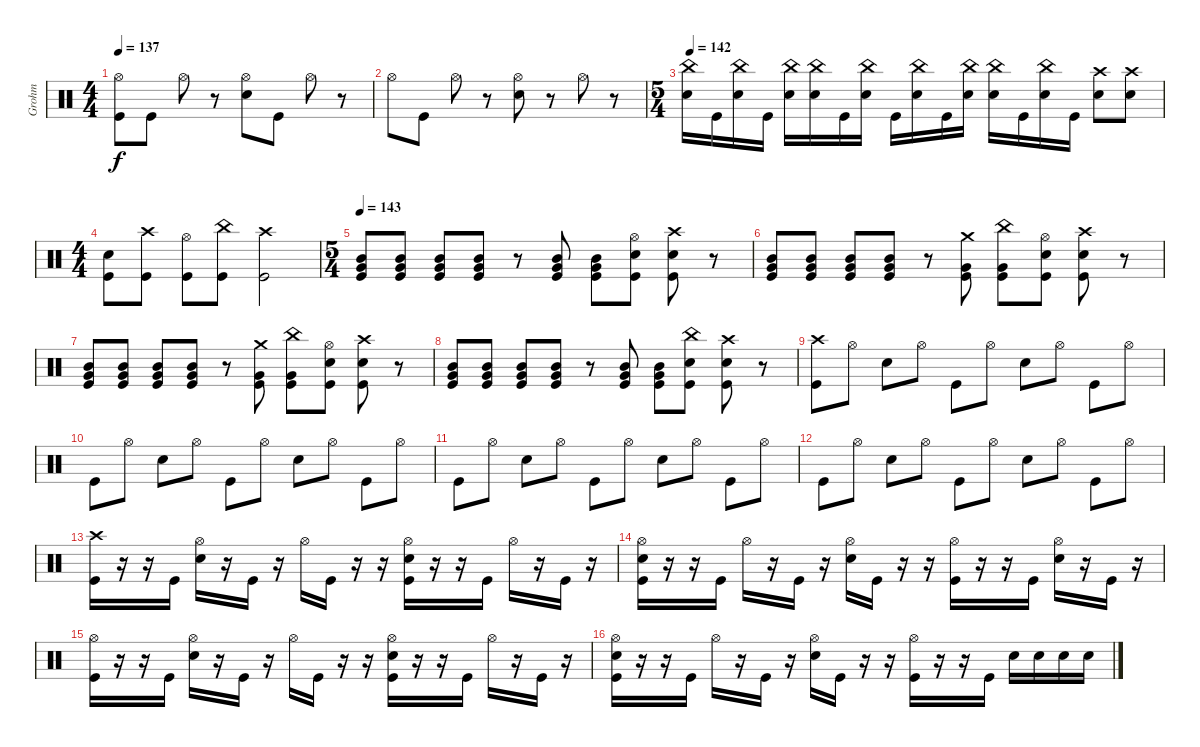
\track ("Grohm" "Grohm") {instrument percussion}
\staff {score}
\articulation defaults
\ts (4 4)
\tempo 137
\clef neutral
\ks c
("Hi-Hat (open)" "Kick (hit)").8{dy f} "Kick (hit)".8 "Hi-Hat (open)".8 r.8 ("Hi-Hat (open)" "Snare (hit) 2").8 "Kick (hit)".8 "Hi-Hat (open)".8 r.8 |
"Hi-Hat (open)".8 "Kick (hit)".8 "Hi-Hat (open)".8 r.8 ("Hi-Hat (open)" "Snare (hit) 2").8 r.8 "Hi-Hat (open)".8 r.8 |
\ts (5 4)
\tempo 142
("China (hit)" "Snare (hit) 2").16 "Kick (hit)".16 ("China (hit)" "Snare (hit) 2").16 "Kick (hit)".16 ("China (hit)" "Snare (hit) 2").16 ("China (hit)" "Snare (hit) 2").16 "Kick (hit)".16 ("China (hit)" "Snare (hit) 2").16 "Kick (hit)".16 ("China (hit)" "Snare (hit) 2").16 "Kick (hit)".16 ("China (hit)" "Snare (hit) 2").16 ("China (hit)" "Snare (hit) 2").16 "Kick (hit)".16 ("China (hit)" "Snare (hit) 2").16 "Kick (hit)".16 ("Crash high (hit)" "Snare (hit) 2").8 ("Crash high (hit)" "Snare (hit) 2").8 |
\ts (4 4)
("Snare (hit) 2" "Kick (hit)").8 ("Crash high (hit)" "Kick (hit)").8 ("Hi-Hat (open)" "Kick (hit)").8 ("China (hit)" "Kick (hit)").8 ("Crash high (hit)" "Kick (hit)").2 |
\ts (5 4)
\tempo 143
("Mid Tom (hit)" "Very Low Tom (hit)" "Kick (hit)").8 ("Mid Tom (hit)" "Very Low Tom (hit)" "Kick (hit)").8 ("Mid Tom (hit)" "Very Low Tom (hit)" "Kick (hit)").8 ("Mid Tom (hit)" "Very Low Tom (hit)" "Kick (hit)").8 r.8 ("Mid Tom (hit)" "Very Low Tom (hit)" "Kick (hit)").8 ("Mid Tom (hit)" "Very Low Tom (hit)" "Kick (hit)").8 ("Hi-Hat (open)" "Snare (hit) 2" "Kick (hit)").8 ("Crash high (hit)" "Snare (hit) 2" "Kick (hit)").8 r.8 |
("Mid Tom (hit)" "Very Low Tom (hit)" "Kick (hit)").8 ("Mid Tom (hit)" "Very Low Tom (hit)" "Kick (hit)").8 ("Mid Tom (hit)" "Very Low Tom (hit)" "Kick (hit)").8 ("Mid Tom (hit)" "Very Low Tom (hit)" "Kick (hit)").8 r.8 ("Crash medium (hit)" "Very Low Tom (hit)" "Kick (hit)").8 ("China (hit)" "Very Low Tom (hit)" "Kick (hit)").8 ("Hi-Hat (open)" "Snare (hit) 2" "Kick (hit)").8 ("Crash high (hit)" "Snare (hit) 2" "Kick (hit)").8 r.8 |
("Mid Tom (hit)" "Very Low Tom (hit)" "Kick (hit)").8 ("Mid Tom (hit)" "Very Low Tom (hit)" "Kick (hit)").8 ("Mid Tom (hit)" "Very Low Tom (hit)" "Kick (hit)").8 ("Mid Tom (hit)" "Very Low Tom (hit)" "Kick (hit)").8 r.8 ("Crash medium (hit)" "Very Low Tom (hit)" "Kick (hit)").8 ("China (hit)" "Very Low Tom (hit)" "Kick (hit)").8 ("Hi-Hat (open)" "Snare (hit) 2" "Kick (hit)").8 ("Crash high (hit)" "Snare (hit) 2" "Kick (hit)").8 r.8 |
("Mid Tom (hit)" "Very Low Tom (hit)" "Kick (hit)").8 ("Mid Tom (hit)" "Very Low Tom (hit)" "Kick (hit)").8 ("Mid Tom (hit)" "Very Low Tom (hit)" "Kick (hit)").8 ("Mid Tom (hit)" "Very Low Tom (hit)" "Kick (hit)").8 r.8 ("Mid Tom (hit)" "Very Low Tom (hit)" "Kick (hit)").8 ("Mid Tom (hit)" "Very Low Tom (hit)" "Kick (hit)").8 ("China (hit)" "Snare (hit) 2" "Kick (hit)").8 ("Crash high (hit)" "Snare (hit) 2" "Kick (hit)").8 r.8 |
("Crash high (hit)" "Kick (hit)").8 "Hi-Hat (open)".8 "Snare (hit) 2".8 "Hi-Hat (open)".8 "Kick (hit)".8 "Hi-Hat (open)".8 "Snare (hit) 2".8 "Hi-Hat (open)".8 "Kick (hit)".8 "Hi-Hat (open)".8 |
"Kick (hit)".8 "Hi-Hat (open)".8 "Snare (hit) 2".8 "Hi-Hat (open)".8 "Kick (hit)".8 "Hi-Hat (open)".8 "Snare (hit) 2".8 "Hi-Hat (open)".8 "Kick (hit)".8 "Hi-Hat (open)".8 |
"Kick (hit)".8 "Hi-Hat (open)".8 "Snare (hit) 2".8 "Hi-Hat (open)".8 "Kick (hit)".8 "Hi-Hat (open)".8 "Snare (hit) 2".8 "Hi-Hat (open)".8 "Kick (hit)".8 "Hi-Hat (open)".8 |
"Kick (hit)".8 "Hi-Hat (open)".8 "Snare (hit) 2".8 "Hi-Hat (open)".8 "Kick (hit)".8 "Hi-Hat (open)".8 "Snare (hit) 2".8 "Hi-Hat (open)".8 "Kick (hit)".8 "Hi-Hat (open)".8 |
("Crash high (hit)" "Kick (hit)").16 r.16 r.16 "Kick (hit)".16 ("Hi-Hat (open)" "Snare (hit) 2").16 r.16 "Kick (hit)".16 r.16 "Hi-Hat (open)".16 "Kick (hit)".16 r.16 r.16 ("Hi-Hat (open)" "Snare (hit) 2" "Kick (hit)").16 r.16 r.16 "Kick (hit)".16 "Hi-Hat (open)".16 r.16 "Kick (hit)".16 r.16 |
("Hi-Hat (open)" "Snare (hit) 2" "Kick (hit)").16 r.16 r.16 "Kick (hit)".16 "Hi-Hat (open)".16 r.16 "Kick (hit)".16 r.16 ("Hi-Hat (open)" "Snare (hit) 2").16 "Kick (hit)".16 r.16 r.16 ("Hi-Hat (open)" "Kick (hit)").16 r.16 r.16 "Kick (hit)".16 ("Hi-Hat (open)" "Snare (hit) 2").16 r.16 "Kick (hit)".16 r.16 |
("Hi-Hat (open)" "Kick (hit)").16 r.16 r.16 "Kick (hit)".16 ("Hi-Hat (open)" "Snare (hit) 2").16 r.16 "Kick (hit)".16 r.16 "Hi-Hat (open)".16 "Kick (hit)".16 r.16 r.16 ("Hi-Hat (open)" "Snare (hit) 2" "Kick (hit)").16 r.16 r.16 "Kick (hit)".16 "Hi-Hat (open)".16 r.16 "Kick (hit)".16 r.16 |
("Hi-Hat (open)" "Snare (hit) 2" "Kick (hit)").16 r.16 r.16 "Kick (hit)".16 "Hi-Hat (open)".16 r.16 "Kick (hit)".16 r.16 ("Hi-Hat (open)" "Snare (hit) 2").16 "Kick (hit)".16 r.16 r.16 ("Hi-Hat (open)" "Kick (hit)").16 r.16 r.16 "Kick (hit)".16 "Snare (hit) 2".16 "Snare (hit) 2".16 "Snare (hit) 2".16 "Snare (hit) 2".16
